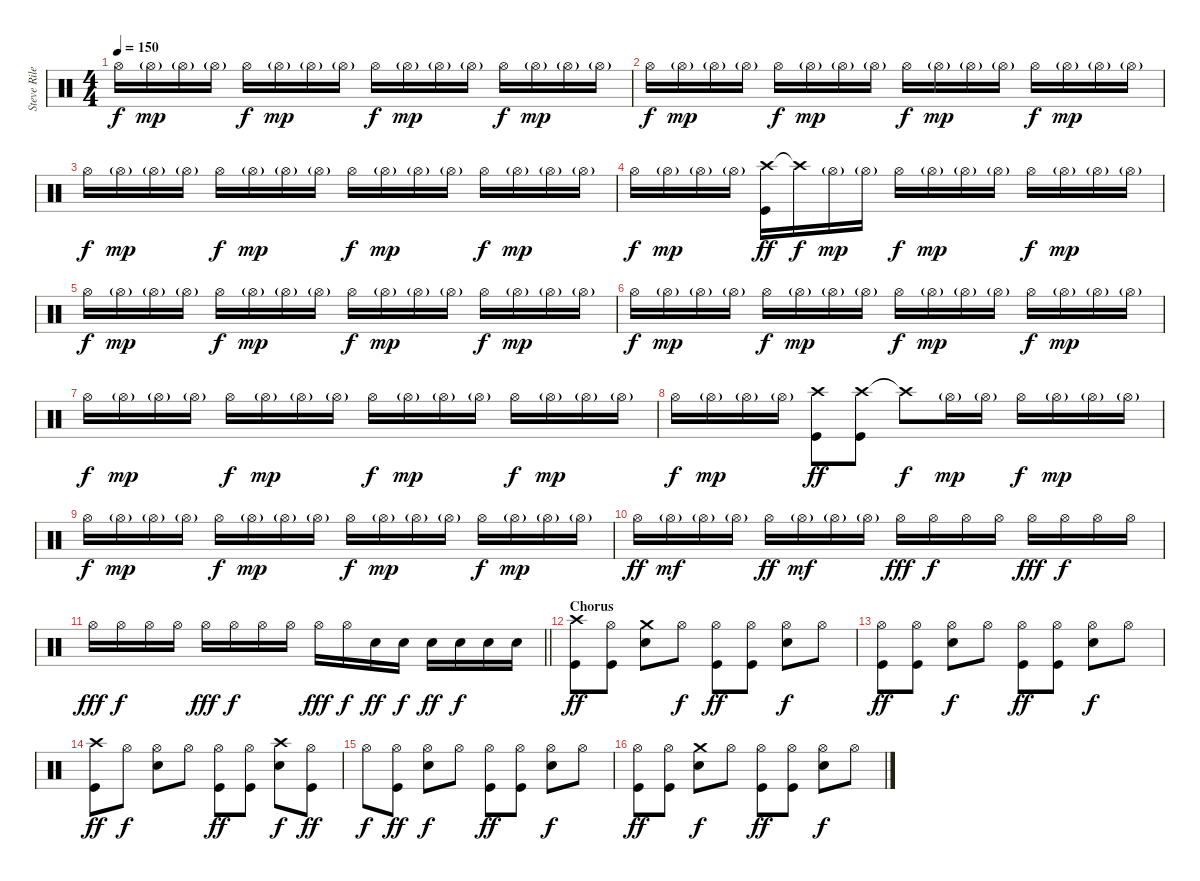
\track ("Steve Riley" "Steve Rile") {instrument percussion}
\staff {score}
\articulation defaults
\ts (4 4)
\tempo 150
\clef neutral
\ks c "Hi-Hat (open)".16{dy f} "Hi-Hat (open)"{g}.16{dy mp} "Hi-Hat (open)"{g}.16 "Hi-Hat (open)"{g}.16 "Hi-Hat (open)".16{dy f} "Hi-Hat (open)"{g}.16{dy mp} "Hi-Hat (open)"{g}.16 "Hi-Hat (open)"{g}.16 "Hi-Hat (open)".16{dy f} "Hi-Hat (open)"{g}.16{dy mp} "Hi-Hat (open)"{g}.16 "Hi-Hat (open)"{g}.16 "Hi-Hat (open)".16{dy f} "Hi-Hat (open)"{g}.16{dy mp} "Hi-Hat (open)"{g}.16 "Hi-Hat (open)"{g}.16
|
"Hi-Hat (open)".16{dy f} "Hi-Hat (open)"{g}.16{dy mp} "Hi-Hat (open)"{g}.16 "Hi-Hat (open)"{g}.16 "Hi-Hat (open)".16{dy f} "Hi-Hat (open)"{g}.16{dy mp} "Hi-Hat (open)"{g}.16 "Hi-Hat (open)"{g}.16 "Hi-Hat (open)".16{dy f} "Hi-Hat (open)"{g}.16{dy mp} "Hi-Hat (open)"{g}.16 "Hi-Hat (open)"{g}.16 "Hi-Hat (open)".16{dy f} "Hi-Hat (open)"{g}.16{dy mp} "Hi-Hat (open)"{g}.16 "Hi-Hat (open)"{g}.16 |
"Hi-Hat (open)".16{dy f} "Hi-Hat (open)"{g}.16{dy mp} "Hi-Hat (open)"{g}.16 "Hi-Hat (open)"{g}.16 "Hi-Hat (open)".16{dy f} "Hi-Hat (open)"{g}.16{dy mp} "Hi-Hat (open)"{g}.16 "Hi-Hat (open)"{g}.16 "Hi-Hat (open)".16{dy f} "Hi-Hat (open)"{g}.16{dy mp} "Hi-Hat (open)"{g}.16 "Hi-Hat (open)"{g}.16 "Hi-Hat (open)".16{dy f} "Hi-Hat (open)"{g}.16{dy mp} "Hi-Hat (open)"{g}.16 "Hi-Hat (open)"{g}.16 |
"Hi-Hat (open)".16{dy f} "Hi-Hat (open)"{g}.16{dy mp} "Hi-Hat (open)"{g}.16 "Hi-Hat (open)"{g}.16 ("Crash high (hit)" "Kick (hit)").16{dy ff} "Crash high (hit)"{t}.16{dy f} "Hi-Hat (open)"{g}.16{dy mp} "Hi-Hat (open)"{g}.16 "Hi-Hat (open)".16{dy f} "Hi-Hat (open)"{g}.16{dy mp} "Hi-Hat (open)"{g}.16 "Hi-Hat (open)"{g}.16 "Hi-Hat (open)".16{dy f} "Hi-Hat (open)"{g}.16{dy mp} "Hi-Hat (open)"{g}.16 "Hi-Hat (open)"{g}.16 |
"Hi-Hat (open)".16{dy f} "Hi-Hat (open)"{g}.16{dy mp} "Hi-Hat (open)"{g}.16 "Hi-Hat (open)"{g}.16 "Hi-Hat (open)".16{dy f} "Hi-Hat (open)"{g}.16{dy mp} "Hi-Hat (open)"{g}.16 "Hi-Hat (open)"{g}.16 "Hi-Hat (open)".16{dy f} "Hi-Hat (open)"{g}.16{dy mp} "Hi-Hat (open)"{g}.16 "Hi-Hat (open)"{g}.16 "Hi-Hat (open)".16{dy f} "Hi-Hat (open)"{g}.16{dy mp} "Hi-Hat (open)"{g}.16 "Hi-Hat (open)"{g}.16 |
"Hi-Hat (open)".16{dy f} "Hi-Hat (open)"{g}.16{dy mp} "Hi-Hat (open)"{g}.16 "Hi-Hat (open)"{g}.16 "Hi-Hat (open)".16{dy f} "Hi-Hat (open)"{g}.16{dy mp} "Hi-Hat (open)"{g}.16 "Hi-Hat (open)"{g}.16 "Hi-Hat (open)".16{dy f} "Hi-Hat (open)"{g}.16{dy mp} "Hi-Hat (open)"{g}.16 "Hi-Hat (open)"{g}.16 "Hi-Hat (open)".16{dy f} "Hi-Hat (open)"{g}.16{dy mp} "Hi-Hat (open)"{g}.16 "Hi-Hat (open)"{g}.16 |
"Hi-Hat (open)".16{dy f} "Hi-Hat (open)"{g}.16{dy mp} "Hi-Hat (open)"{g}.16 "Hi-Hat (open)"{g}.16 "Hi-Hat (open)".16{dy f} "Hi-Hat (open)"{g}.16{dy mp} "Hi-Hat (open)"{g}.16 "Hi-Hat (open)"{g}.16 "Hi-Hat (open)".16{dy f} "Hi-Hat (open)"{g}.16{dy mp} "Hi-Hat (open)"{g}.16 "Hi-Hat (open)"{g}.16 "Hi-Hat (open)".16{dy f} "Hi-Hat (open)"{g}.16{dy mp} "Hi-Hat (open)"{g}.16 "Hi-Hat (open)"{g}.16 |
"Hi-Hat (open)".16{dy f} "Hi-Hat (open)"{g}.16{dy mp} "Hi-Hat (open)"{g}.16 "Hi-Hat (open)"{g}.16 ("Crash high (hit)" "Kick (hit)").8{dy ff} ("Crash high (hit)" "Kick (hit)").8 "Crash high (hit)"{t}.8{dy f} "Hi-Hat (open)"{g}.16{dy mp} "Hi-Hat (open)"{g}.16 "Hi-Hat (open)".16{dy f} "Hi-Hat (open)"{g}.16{dy mp} "Hi-Hat (open)"{g}.16 "Hi-Hat (open)"{g}.16 |
"Hi-Hat (open)".16{dy f} "Hi-Hat (open)"{g}.16{dy mp} "Hi-Hat (open)"{g}.16 "Hi-Hat (open)"{g}.16 "Hi-Hat (open)".16{dy f} "Hi-Hat (open)"{g}.16{dy mp} "Hi-Hat (open)"{g}.16 "Hi-Hat (open)"{g}.16 "Hi-Hat (open)".16{dy f} "Hi-Hat (open)"{g}.16{dy mp} "Hi-Hat (open)"{g}.16 "Hi-Hat (open)"{g}.16 "Hi-Hat (open)".16{dy f} "Hi-Hat (open)"{g}.16{dy mp} "Hi-Hat (open)"{g}.16 "Hi-Hat (open)"{g}.16 |
"Hi-Hat (open)".16{dy ff} "Hi-Hat (open)"{g}.16{dy mf} "Hi-Hat (open)"{g}.16 "Hi-Hat (open)"{g}.16 "Hi-Hat (open)".16{dy ff} "Hi-Hat (open)"{g}.16{dy mf} "Hi-Hat (open)"{g}.16 "Hi-Hat (open)"{g}.16 "Hi-Hat (open)".16{dy fff} "Hi-Hat (open)".16{dy f} "Hi-Hat (open)".16 "Hi-Hat (open)".16 "Hi-Hat (open)".16{dy fff} "Hi-Hat (open)".16{dy f} "Hi-Hat (open)".16 "Hi-Hat (open)".16 |
\barLineRight lightlight "Hi-Hat (open)".16{dy fff} "Hi-Hat (open)".16{dy f} "Hi-Hat (open)".16 "Hi-Hat (open)".16 "Hi-Hat (open)".16{dy fff} "Hi-Hat (open)".16{dy f} "Hi-Hat (open)".16 "Hi-Hat (open)".16 "Hi-Hat (open)".16{dy fff} "Hi-Hat (open)".16{dy f} "Snare (hit) 2".16{dy ff} "Snare (hit) 2".16{dy f} "Snare (hit) 2".16{dy ff} "Snare (hit) 2".16{dy f} "Snare (hit) 2".16 "Snare (hit) 2".16
|
\section ("" "Chorus")
("Crash high (hit)" "Kick (hit)").8{dy ff} ("Hi-Hat (open)" "Kick (hit)").8 ("Crash medium (hit)" "Snare (hit) 2").8 "Hi-Hat (open)".8{dy f} ("Hi-Hat (open)" "Kick (hit)").8{dy ff} ("Hi-Hat (open)" "Kick (hit)").8 ("Hi-Hat (open)" "Snare (hit) 2").8{dy f} "Hi-Hat (open)".8 |
("Hi-Hat (open)" "Kick (hit)").8{dy ff} ("Hi-Hat (open)" "Kick (hit)").8 ("Hi-Hat (open)" "Snare (hit) 2").8{dy f} "Hi-Hat (open)".8 ("Hi-Hat (open)" "Kick (hit)").8{dy ff} ("Hi-Hat (open)" "Kick (hit)").8 ("Hi-Hat (open)" "Snare (hit) 2").8{dy f} "Hi-Hat (open)".8 |
("Crash high (hit)" "Kick (hit)").8{dy ff} "Hi-Hat (open)".8{dy f} ("Hi-Hat (open)" "Snare (hit) 2").8 "Hi-Hat (open)".8 ("Hi-Hat (open)" "Kick (hit)").8{dy ff} ("Hi-Hat (open)" "Kick (hit)").8 ("Crash high (hit)" "Snare (hit) 2").8{dy f} ("Hi-Hat (open)" "Kick (hit)").8{dy ff} |
"Hi-Hat (open)".8{dy f} ("Hi-Hat (open)" "Kick (hit)").8{dy ff} ("Hi-Hat (open)" "Snare (hit) 2").8{dy f} "Hi-Hat (open)".8 ("Hi-Hat (open)" "Kick (hit)").8{dy ff} ("Hi-Hat (open)" "Kick (hit)").8 ("Hi-Hat (open)" "Snare (hit) 2").8{dy f} "Hi-Hat (open)".8 |
("Hi-Hat (open)" "Kick (hit)").8{dy ff} ("Hi-Hat (open)" "Kick (hit)").8 ("Crash medium (hit)" "Snare (hit) 2").8{dy f} "Hi-Hat (open)".8 ("Hi-Hat (open)" "Kick (hit)").8{dy ff} ("Hi-Hat (open)" "Kick (hit)").8 ("Hi-Hat (open)" "Snare (hit) 2").8{dy f} "Hi-Hat (open)".8
